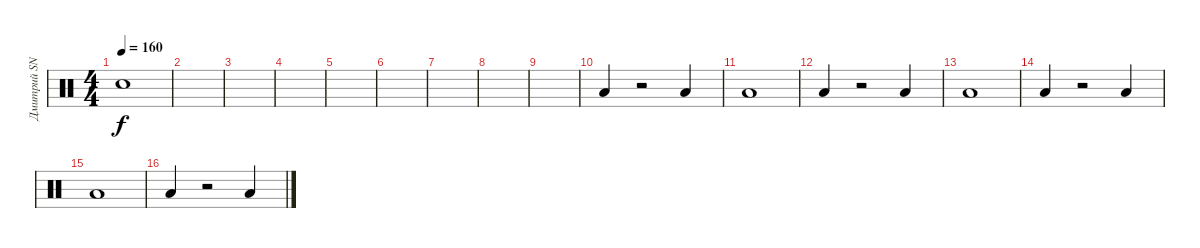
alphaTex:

\track ("Дмитрий SNAKE Хакимов" "Дмитрий SN") {instrument percussion}
\staff {score}
\articulation defaults
\ts (4 4)
\tempo 160
\clef neutral
\ks c "Electric Snare (hit)".1{dy f}
|
|
|
|
|
|
|
|
|
"Low Tom (hit)".4 r.2 "Low Tom (hit)".4 |
"Low Tom (hit)".1 |
"Low Tom (hit)".4 r.2 "Low Tom (hit)".4 |
"Low Tom (hit)".1 |
"Low Tom (hit)".4 r.2 "Low Tom (hit)".4 |
"Low Tom (hit)".1 |
"Low Tom (hit)".4 r.2 "Low Tom (hit)".4
